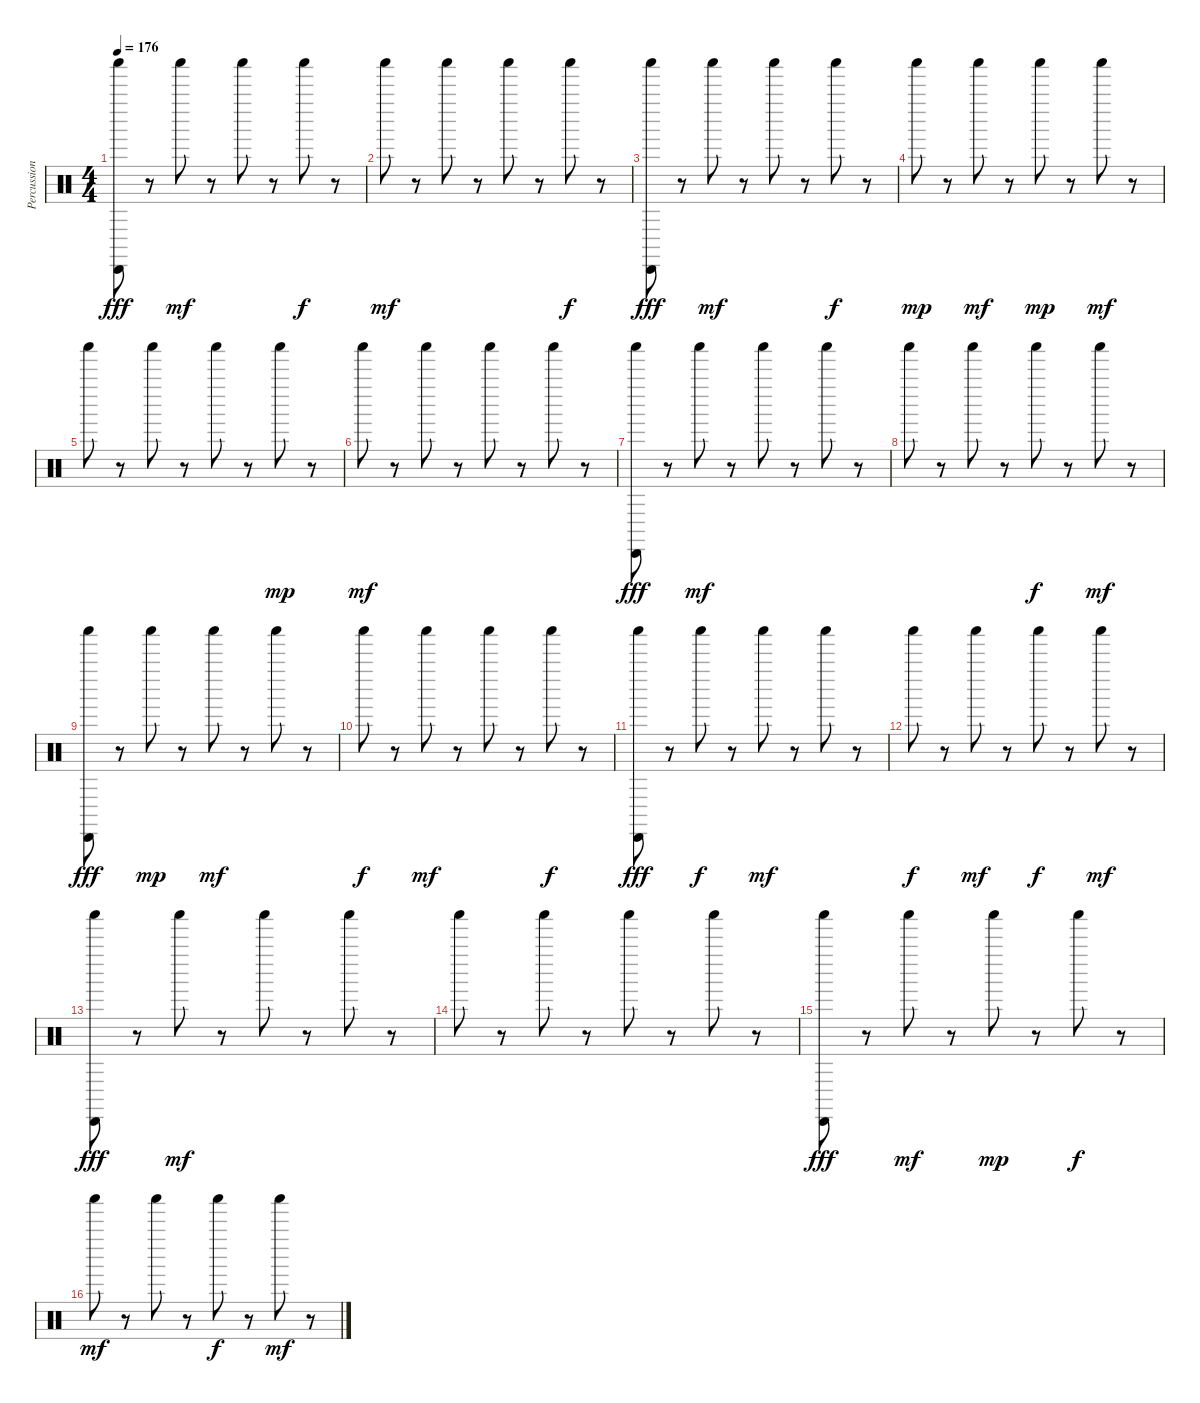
\track ("Percussion" "Percussion") {instrument percussion}
\staff {score}
\articulation defaults
\ts (4 4)
\tempo 176
\clef neutral
\ks c
("Shaker (hit)" "Cabasa (hit)").8{dy fff} r.8 "Shaker (hit)".8{dy mf} r.8 "Shaker (hit)".8 r.8 "Shaker (hit)".8{dy f} r.8 |
"Shaker (hit)".8{dy mf} r.8 "Shaker (hit)".8 r.8 "Shaker (hit)".8 r.8 "Shaker (hit)".8{dy f} r.8 |
("Shaker (hit)" "Cabasa (hit)").8{dy fff} r.8 "Shaker (hit)".8{dy mf} r.8 "Shaker (hit)".8 r.8 "Shaker (hit)".8{dy f} r.8 |
"Shaker (hit)".8{dy mp} r.8 "Shaker (hit)".8{dy mf} r.8 "Shaker (hit)".8{dy mp} r.8 "Shaker (hit)".8{dy mf} r.8 |
"Shaker (hit)".8 r.8 "Shaker (hit)".8 r.8 "Shaker (hit)".8 r.8 "Shaker (hit)".8{dy mp} r.8 |
"Shaker (hit)".8{dy mf} r.8 "Shaker (hit)".8 r.8 "Shaker (hit)".8 r.8 "Shaker (hit)".8 r.8 |
("Shaker (hit)" "Cabasa (hit)").8{dy fff} r.8 "Shaker (hit)".8{dy mf} r.8 "Shaker (hit)".8 r.8 "Shaker (hit)".8 r.8 |
"Shaker (hit)".8 r.8 "Shaker (hit)".8 r.8 "Shaker (hit)".8{dy f} r.8 "Shaker (hit)".8{dy mf} r.8 |
("Shaker (hit)" "Cabasa (hit)").8{dy fff} r.8 "Shaker (hit)".8{dy mp} r.8 "Shaker (hit)".8{dy mf} r.8 "Shaker (hit)".8 r.8 |
"Shaker (hit)".8{dy f} r.8 "Shaker (hit)".8{dy mf} r.8 "Shaker (hit)".8 r.8 "Shaker (hit)".8{dy f} r.8 |
("Shaker (hit)" "Cabasa (hit)").8{dy fff} r.8 "Shaker (hit)".8{dy f} r.8 "Shaker (hit)".8{dy mf} r.8 "Shaker (hit)".8 r.8 |
"Shaker (hit)".8{dy f} r.8 "Shaker (hit)".8{dy mf} r.8 "Shaker (hit)".8{dy f} r.8 "Shaker (hit)".8{dy mf} r.8 |
("Shaker (hit)" "Cabasa (hit)").8{dy fff} r.8 "Shaker (hit)".8{dy mf} r.8 "Shaker (hit)".8 r.8 "Shaker (hit)".8 r.8 |
"Shaker (hit)".8 r.8 "Shaker (hit)".8 r.8 "Shaker (hit)".8 r.8 "Shaker (hit)".8 r.8 |
("Shaker (hit)" "Cabasa (hit)").8{dy fff} r.8 "Shaker (hit)".8{dy mf} r.8 "Shaker (hit)".8{dy mp} r.8 "Shaker (hit)".8{dy f} r.8 |
"Shaker (hit)".8{dy mf} r.8 "Shaker (hit)".8 r.8 "Shaker (hit)".8{dy f} r.8 "Shaker (hit)".8{dy mf} r.8
